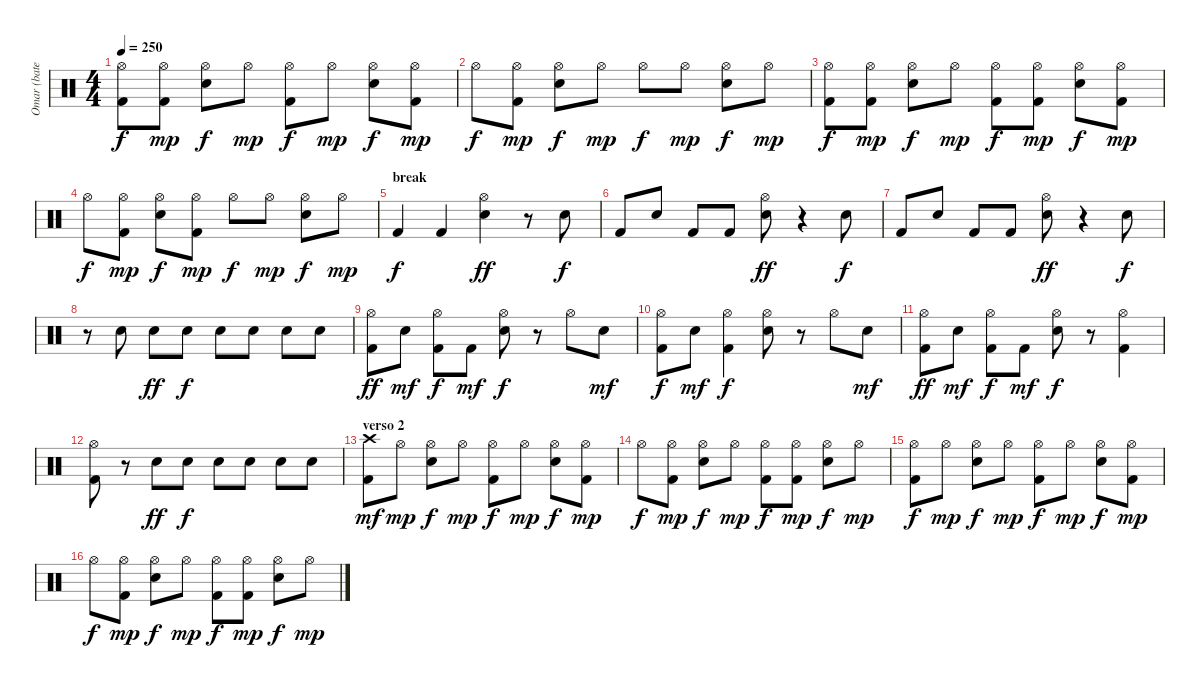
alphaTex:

\track ("Omar (batería)" "Omar (bate") {instrument percussion}
\staff {score}
\articulation defaults
\ts (4 4)
\tempo 250
\clef neutral
\ks c
("Hi-Hat (open)" "Kick (hit) 2").8{dy f} ("Hi-Hat (open)" "Kick (hit) 2").8{dy mp} ("Hi-Hat (open)" "Snare (hit) 2").8{dy f} "Hi-Hat (open)".8{dy mp} ("Hi-Hat (open)" "Kick (hit) 2").8{dy f} "Hi-Hat (open)".8{dy mp} ("Hi-Hat (open)" "Snare (hit) 2").8{dy f} ("Hi-Hat (open)" "Kick (hit) 2").8{dy mp} |
"Hi-Hat (open)".8{dy f} ("Hi-Hat (open)" "Kick (hit) 2").8{dy mp} ("Hi-Hat (open)" "Snare (hit) 2").8{dy f} "Hi-Hat (open)".8{dy mp} "Hi-Hat (open)".8{dy f} "Hi-Hat (open)".8{dy mp} ("Hi-Hat (open)" "Snare (hit) 2").8{dy f} "Hi-Hat (open)".8{dy mp} |
("Hi-Hat (open)" "Kick (hit) 2").8{dy f} ("Hi-Hat (open)" "Kick (hit) 2").8{dy mp} ("Hi-Hat (open)" "Snare (hit) 2").8{dy f} "Hi-Hat (open)".8{dy mp} ("Hi-Hat (open)" "Kick (hit) 2").8{dy f} ("Hi-Hat (open)" "Kick (hit) 2").8{dy mp} ("Hi-Hat (open)" "Snare (hit) 2").8{dy f} ("Hi-Hat (open)" "Kick (hit) 2").8{dy mp} |
"Hi-Hat (open)".8{dy f} ("Hi-Hat (open)" "Kick (hit) 2").8{dy mp} ("Hi-Hat (open)" "Snare (hit) 2").8{dy f} ("Hi-Hat (open)" "Kick (hit) 2").8{dy mp} "Hi-Hat (open)".8{dy f} "Hi-Hat (open)".8{dy mp} ("Hi-Hat (open)" "Snare (hit) 2").8{dy f} "Hi-Hat (open)".8{dy mp} |
\section ("" "break")
"Kick (hit) 2".4{dy f} "Kick (hit) 2".4 ("Hi-Hat (open)" "Snare (hit) 2").4{dy ff} r.8 "Snare (hit) 2".8{dy f} |
"Kick (hit) 2".8 "Snare (hit) 2".8 "Kick (hit) 2".8 "Kick (hit) 2".8 ("Hi-Hat (open)" "Snare (hit) 2").8{dy ff} r.4 "Snare (hit) 2".8{dy f} |
"Kick (hit) 2".8 "Snare (hit) 2".8 "Kick (hit) 2".8 "Kick (hit) 2".8 ("Hi-Hat (open)" "Snare (hit) 2").8{dy ff} r.4 "Snare (hit) 2".8{dy f} |
r.8 "Snare (hit) 2".8 "Snare (hit) 2".8{dy ff} "Snare (hit) 2".8{dy f} "Snare (hit) 2".8 "Snare (hit) 2".8 "Snare (hit) 2".8 "Snare (hit) 2".8 |
("Hi-Hat (open)" "Kick (hit) 2").8{dy ff} "Snare (hit) 2".8{dy mf} ("Hi-Hat (open)" "Kick (hit) 2").8{dy f} "Kick (hit) 2".8{dy mf} ("Hi-Hat (open)" "Snare (hit) 2").8{dy f} r.8 "Hi-Hat (open)".8 "Snare (hit) 2".8{dy mf} |
("Hi-Hat (open)" "Kick (hit) 2").8{dy f} "Snare (hit) 2".8{dy mf} ("Hi-Hat (open)" "Kick (hit) 2").4{dy f} ("Hi-Hat (open)" "Snare (hit) 2").8 r.8 "Hi-Hat (open)".8 "Snare (hit) 2".8{dy mf} |
("Hi-Hat (open)" "Kick (hit) 2").8{dy ff} "Snare (hit) 2".8{dy mf} ("Hi-Hat (open)" "Kick (hit) 2").8{dy f} "Kick (hit) 2".8{dy mf} ("Hi-Hat (open)" "Snare (hit) 2").8{dy f} r.8 ("Hi-Hat (open)" "Kick (hit) 2").4 |
("Hi-Hat (open)" "Kick (hit) 2").8 r.8 "Snare (hit) 2".8{dy ff} "Snare (hit) 2".8{dy f} "Snare (hit) 2".8 "Snare (hit) 2".8 "Snare (hit) 2".8 "Snare (hit) 2".8 |
\section ("" "verso 2")
("Crash high (hit)" "Kick (hit) 2").8{dy mf} "Hi-Hat (open)".8{dy mp} ("Hi-Hat (open)" "Snare (hit) 2").8{dy f} "Hi-Hat (open)".8{dy mp} ("Hi-Hat (open)" "Kick (hit) 2").8{dy f} "Hi-Hat (open)".8{dy mp} ("Hi-Hat (open)" "Snare (hit) 2").8{dy f} ("Hi-Hat (open)" "Kick (hit) 2").8{dy mp} |
"Hi-Hat (open)".8{dy f} ("Hi-Hat (open)" "Kick (hit) 2").8{dy mp} ("Hi-Hat (open)" "Snare (hit) 2").8{dy f} "Hi-Hat (open)".8{dy mp} ("Hi-Hat (open)" "Kick (hit) 2").8{dy f} ("Hi-Hat (open)" "Kick (hit) 2").8{dy mp} ("Hi-Hat (open)" "Snare (hit) 2").8{dy f} "Hi-Hat (open)".8{dy mp} |
("Hi-Hat (open)" "Kick (hit) 2").8{dy f} "Hi-Hat (open)".8{dy mp} ("Hi-Hat (open)" "Snare (hit) 2").8{dy f} "Hi-Hat (open)".8{dy mp} ("Hi-Hat (open)" "Kick (hit) 2").8{dy f} "Hi-Hat (open)".8{dy mp} ("Hi-Hat (open)" "Snare (hit) 2").8{dy f} ("Hi-Hat (open)" "Kick (hit) 2").8{dy mp} |
"Hi-Hat (open)".8{dy f} ("Hi-Hat (open)" "Kick (hit) 2").8{dy mp} ("Hi-Hat (open)" "Snare (hit) 2").8{dy f} "Hi-Hat (open)".8{dy mp} ("Hi-Hat (open)" "Kick (hit) 2").8{dy f} ("Hi-Hat (open)" "Kick (hit) 2").8{dy mp} ("Hi-Hat (open)" "Snare (hit) 2").8{dy f} "Hi-Hat (open)".8{dy mp}
